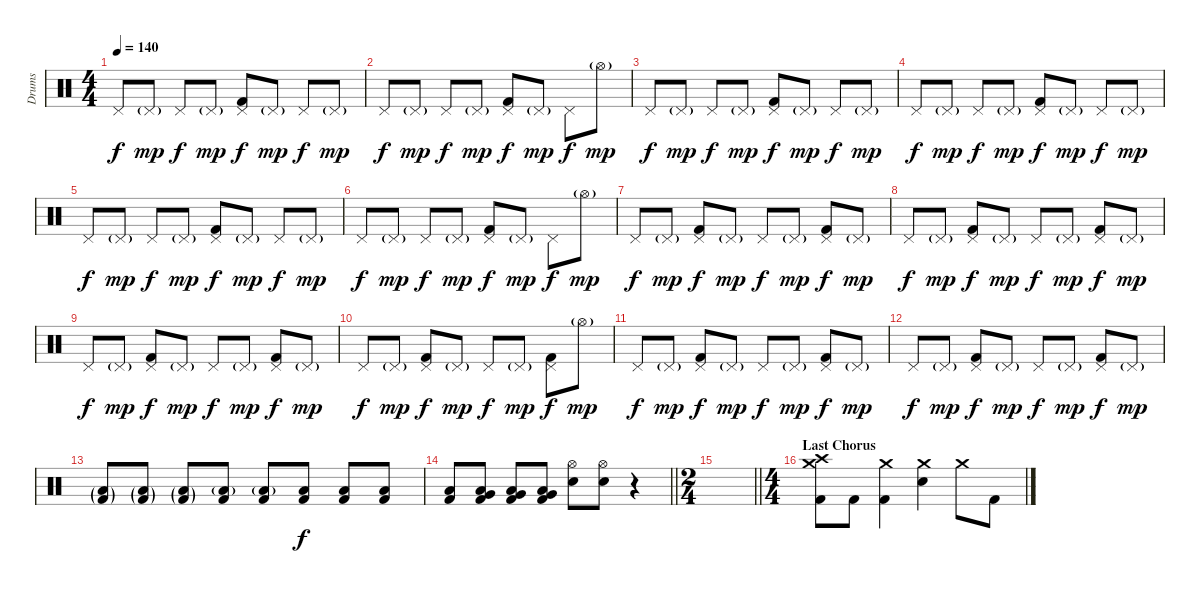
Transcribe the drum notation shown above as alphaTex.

\track ("Drums" "Drums") {instrument percussion}
\staff {score}
\articulation defaults
\ts (4 4)
\tempo 140
\clef neutral
\ks c "Pedal Hi-Hat (hit)".8{dy f} "Pedal Hi-Hat (hit)"{g}.8{dy mp} "Pedal Hi-Hat (hit)".8{dy f} "Pedal Hi-Hat (hit)"{g}.8{dy mp}
("Pedal Hi-Hat (hit)" "Kick (hit) 2").8{dy f} "Pedal Hi-Hat (hit)"{g}.8{dy mp} "Pedal Hi-Hat (hit)".8{dy f} "Pedal Hi-Hat (hit)"{g}.8{dy mp} |
"Pedal Hi-Hat (hit)".8{dy f} "Pedal Hi-Hat (hit)"{g}.8{dy mp} "Pedal Hi-Hat (hit)".8{dy f} "Pedal Hi-Hat (hit)"{g}.8{dy mp} ("Pedal Hi-Hat (hit)" "Kick (hit) 2").8{dy f} "Pedal Hi-Hat (hit)"{g}.8{dy mp} "Pedal Hi-Hat (hit)".8{dy f} "Hi-Hat (open)"{g}.8{dy mp} |
"Pedal Hi-Hat (hit)".8{dy f} "Pedal Hi-Hat (hit)"{g}.8{dy mp} "Pedal Hi-Hat (hit)".8{dy f} "Pedal Hi-Hat (hit)"{g}.8{dy mp} ("Pedal Hi-Hat (hit)" "Kick (hit) 2").8{dy f} "Pedal Hi-Hat (hit)"{g}.8{dy mp} "Pedal Hi-Hat (hit)".8{dy f} "Pedal Hi-Hat (hit)"{g}.8{dy mp} |
"Pedal Hi-Hat (hit)".8{dy f} "Pedal Hi-Hat (hit)"{g}.8{dy mp} "Pedal Hi-Hat (hit)".8{dy f} "Pedal Hi-Hat (hit)"{g}.8{dy mp} ("Pedal Hi-Hat (hit)" "Kick (hit) 2").8{dy f} "Pedal Hi-Hat (hit)"{g}.8{dy mp} "Pedal Hi-Hat (hit)".8{dy f} "Pedal Hi-Hat (hit)"{g}.8{dy mp} |
"Pedal Hi-Hat (hit)".8{dy f} "Pedal Hi-Hat (hit)"{g}.8{dy mp} "Pedal Hi-Hat (hit)".8{dy f} "Pedal Hi-Hat (hit)"{g}.8{dy mp} ("Pedal Hi-Hat (hit)" "Kick (hit) 2").8{dy f} "Pedal Hi-Hat (hit)"{g}.8{dy mp} "Pedal Hi-Hat (hit)".8{dy f} "Pedal Hi-Hat (hit)"{g}.8{dy mp} |
"Pedal Hi-Hat (hit)".8{dy f} "Pedal Hi-Hat (hit)"{g}.8{dy mp} "Pedal Hi-Hat (hit)".8{dy f} "Pedal Hi-Hat (hit)"{g}.8{dy mp} ("Pedal Hi-Hat (hit)" "Kick (hit) 2").8{dy f} "Pedal Hi-Hat (hit)"{g}.8{dy mp} "Pedal Hi-Hat (hit)".8{dy f} "Hi-Hat (open)"{g}.8{dy mp} |
"Pedal Hi-Hat (hit)".8{dy f} "Pedal Hi-Hat (hit)"{g}.8{dy mp} ("Pedal Hi-Hat (hit)" "Kick (hit) 2").8{dy f} "Pedal Hi-Hat (hit)"{g}.8{dy mp} "Pedal Hi-Hat (hit)".8{dy f} "Pedal Hi-Hat (hit)"{g}.8{dy mp} ("Pedal Hi-Hat (hit)" "Kick (hit) 2").8{dy f} "Pedal Hi-Hat (hit)"{g}.8{dy mp} |
"Pedal Hi-Hat (hit)".8{dy f} "Pedal Hi-Hat (hit)"{g}.8{dy mp} ("Pedal Hi-Hat (hit)" "Kick (hit) 2").8{dy f} "Pedal Hi-Hat (hit)"{g}.8{dy mp} "Pedal Hi-Hat (hit)".8{dy f} "Pedal Hi-Hat (hit)"{g}.8{dy mp} ("Pedal Hi-Hat (hit)" "Kick (hit) 2").8{dy f} "Pedal Hi-Hat (hit)"{g}.8{dy mp} |
"Pedal Hi-Hat (hit)".8{dy f} "Pedal Hi-Hat (hit)"{g}.8{dy mp} ("Pedal Hi-Hat (hit)" "Kick (hit) 2").8{dy f} "Pedal Hi-Hat (hit)"{g}.8{dy mp} "Pedal Hi-Hat (hit)".8{dy f} "Pedal Hi-Hat (hit)"{g}.8{dy mp} ("Pedal Hi-Hat (hit)" "Kick (hit) 2").8{dy f} "Pedal Hi-Hat (hit)"{g}.8{dy mp} |
"Pedal Hi-Hat (hit)".8{dy f} "Pedal Hi-Hat (hit)"{g}.8{dy mp} ("Pedal Hi-Hat (hit)" "Kick (hit) 2").8{dy f} "Pedal Hi-Hat (hit)"{g}.8{dy mp} "Pedal Hi-Hat (hit)".8{dy f} "Pedal Hi-Hat (hit)"{g}.8{dy mp} ("Pedal Hi-Hat (hit)" "Kick (hit) 2").8{dy f} "Hi-Hat (open)"{g}.8{dy mp} |
"Pedal Hi-Hat (hit)".8{dy f} "Pedal Hi-Hat (hit)"{g}.8{dy mp} ("Pedal Hi-Hat (hit)" "Kick (hit) 2").8{dy f} "Pedal Hi-Hat (hit)"{g}.8{dy mp} "Pedal Hi-Hat (hit)".8{dy f} "Pedal Hi-Hat (hit)"{g}.8{dy mp} ("Pedal Hi-Hat (hit)" "Kick (hit) 2").8{dy f} "Pedal Hi-Hat (hit)"{g}.8{dy mp} |
"Pedal Hi-Hat (hit)".8{dy f} "Pedal Hi-Hat (hit)"{g}.8{dy mp} ("Pedal Hi-Hat (hit)" "Kick (hit) 2").8{dy f} "Pedal Hi-Hat (hit)"{g}.8{dy mp} "Pedal Hi-Hat (hit)".8{dy f} "Pedal Hi-Hat (hit)"{g}.8{dy mp} ("Pedal Hi-Hat (hit)" "Kick (hit) 2").8{dy f} "Pedal Hi-Hat (hit)"{g}.8{dy mp} |
("Low Floor Tom (hit)"{g} "Kick (hit) 2"{g}).8 ("Low Floor Tom (hit)"{g} "Kick (hit) 2"{g}).8 ("Low Floor Tom (hit)"{g} "Kick (hit) 2"{g}).8 ("Low Floor Tom (hit)"{g} "Kick (hit) 2").8 ("Low Floor Tom (hit)"{g} "Kick (hit) 2").8 ("Low Floor Tom (hit)" "Kick (hit) 2").8{dy f} ("Low Floor Tom (hit)" "Kick (hit) 2").8 ("Low Floor Tom (hit)" "Kick (hit) 2").8 |
\barLineRight lightlight
("Low Floor Tom (hit)" "Kick (hit) 2").8 ("Very Low Tom (hit)" "Low Floor Tom (hit)" "Kick (hit) 2").8 ("Very Low Tom (hit)" "Low Floor Tom (hit)" "Kick (hit) 2").8 ("Very Low Tom (hit)" "Low Floor Tom (hit)" "Kick (hit) 2").8 ("Hi-Hat (open)" "Electric Snare (hit)").8 ("Hi-Hat (open)" "Electric Snare (hit)").8 r.4 |
\ts (2 4)
\barLineRight lightlight
|
\ts (4 4)
\section ("" "Last Chorus")
("Crash high (hit)" "Crash medium (hit)" "Kick (hit) 2").8 "Kick (hit) 2".8 ("Crash medium (hit)" "Kick (hit) 2").4 ("Crash medium (hit)" "Electric Snare (hit)").4 "Crash medium (hit)".8 "Kick (hit) 2".8
